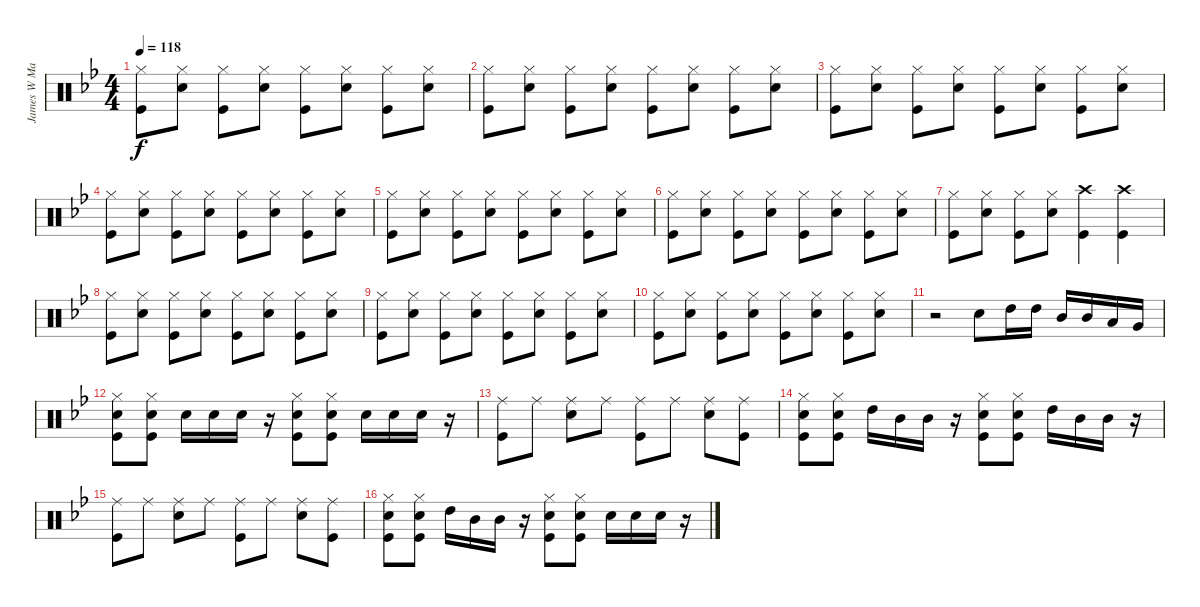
\track ("James W Marshall Drums" "James W Ma") {instrument percussion}
\staff {score}
\articulation defaults
\ts (4 4)
\tempo 118
\clef neutral
\ks gminor
("Hi-Hat (closed)" "Kick (hit)").8{dy f} ("Hi-Hat (closed)" "Snare (hit) 2").8 ("Hi-Hat (closed)" "Kick (hit)").8 ("Hi-Hat (closed)" "Snare (hit) 2").8 ("Hi-Hat (closed)" "Kick (hit)").8 ("Hi-Hat (closed)" "Snare (hit) 2").8 ("Hi-Hat (closed)" "Kick (hit)").8 ("Hi-Hat (closed)" "Snare (hit) 2").8 |
("Hi-Hat (closed)" "Kick (hit)").8 ("Hi-Hat (closed)" "Snare (hit) 2").8 ("Hi-Hat (closed)" "Kick (hit)").8 ("Hi-Hat (closed)" "Snare (hit) 2").8 ("Hi-Hat (closed)" "Kick (hit)").8 ("Hi-Hat (closed)" "Snare (hit) 2").8 ("Hi-Hat (closed)" "Kick (hit)").8 ("Hi-Hat (closed)" "Snare (hit) 2").8 |
("Hi-Hat (closed)" "Kick (hit)").8 ("Hi-Hat (closed)" "Snare (hit) 2").8 ("Hi-Hat (closed)" "Kick (hit)").8 ("Hi-Hat (closed)" "Snare (hit) 2").8 ("Hi-Hat (closed)" "Kick (hit)").8 ("Hi-Hat (closed)" "Snare (hit) 2").8 ("Hi-Hat (closed)" "Kick (hit)").8 ("Hi-Hat (closed)" "Snare (hit) 2").8 |
("Hi-Hat (closed)" "Kick (hit)").8 ("Hi-Hat (closed)" "Snare (hit) 2").8 ("Hi-Hat (closed)" "Kick (hit)").8 ("Hi-Hat (closed)" "Snare (hit) 2").8 ("Hi-Hat (closed)" "Kick (hit)").8 ("Hi-Hat (closed)" "Snare (hit) 2").8 ("Hi-Hat (closed)" "Kick (hit)").8 ("Hi-Hat (closed)" "Snare (hit) 2").8 |
("Hi-Hat (closed)" "Kick (hit)").8 ("Hi-Hat (closed)" "Snare (hit) 2").8 ("Hi-Hat (closed)" "Kick (hit)").8 ("Hi-Hat (closed)" "Snare (hit) 2").8 ("Hi-Hat (closed)" "Kick (hit)").8 ("Hi-Hat (closed)" "Snare (hit) 2").8 ("Hi-Hat (closed)" "Kick (hit)").8 ("Hi-Hat (closed)" "Snare (hit) 2").8 |
("Hi-Hat (closed)" "Kick (hit)").8 ("Hi-Hat (closed)" "Snare (hit) 2").8 ("Hi-Hat (closed)" "Kick (hit)").8 ("Hi-Hat (closed)" "Snare (hit) 2").8 ("Hi-Hat (closed)" "Kick (hit)").8 ("Hi-Hat (closed)" "Snare (hit) 2").8 ("Hi-Hat (closed)" "Kick (hit)").8 ("Hi-Hat (closed)" "Snare (hit) 2").8 |
("Hi-Hat (closed)" "Kick (hit)").8 ("Hi-Hat (closed)" "Snare (hit) 2").8 ("Hi-Hat (closed)" "Kick (hit)").8 ("Hi-Hat (closed)" "Snare (hit) 2").8 ("Crash high (hit)" "Kick (hit)").4 ("Crash high (hit)" "Kick (hit)").4 |
("Hi-Hat (closed)" "Kick (hit)").8 ("Hi-Hat (closed)" "Snare (hit) 2").8 ("Hi-Hat (closed)" "Kick (hit)").8 ("Hi-Hat (closed)" "Snare (hit) 2").8 ("Hi-Hat (closed)" "Kick (hit)").8 ("Hi-Hat (closed)" "Snare (hit) 2").8 ("Hi-Hat (closed)" "Kick (hit)").8 ("Hi-Hat (closed)" "Snare (hit) 2").8 |
("Hi-Hat (closed)" "Kick (hit)").8 ("Hi-Hat (closed)" "Snare (hit) 2").8 ("Hi-Hat (closed)" "Kick (hit)").8 ("Hi-Hat (closed)" "Snare (hit) 2").8 ("Hi-Hat (closed)" "Kick (hit)").8 ("Hi-Hat (closed)" "Snare (hit) 2").8 ("Hi-Hat (closed)" "Kick (hit)").8 ("Hi-Hat (closed)" "Snare (hit) 2").8 |
("Hi-Hat (closed)" "Kick (hit)").8 ("Hi-Hat (closed)" "Snare (hit) 2").8 ("Hi-Hat (closed)" "Kick (hit)").8 ("Hi-Hat (closed)" "Snare (hit) 2").8 ("Hi-Hat (closed)" "Kick (hit)").8 ("Hi-Hat (closed)" "Snare (hit) 2").8 ("Hi-Hat (closed)" "Kick (hit)").8 ("Hi-Hat (closed)" "Snare (hit) 2").8 |
r.2 "Snare (hit) 2".8 "High Tom (hit)".16 "High Tom (hit)".16 "Mid Tom (hit)".16 "Mid Tom (hit)".16 "Low Tom (hit)".16 "Very Low Tom (hit)".16 |
("Hi-Hat (closed)" "Snare (hit) 2" "Kick (hit)").8 ("Hi-Hat (closed)" "Snare (hit) 2" "Kick (hit)").8 "Snare (hit) 2".16 "Snare (hit) 2".16 "Snare (hit) 2".16 r.16 ("Hi-Hat (closed)" "Snare (hit) 2" "Kick (hit)").8 ("Hi-Hat (closed)" "Snare (hit) 2" "Kick (hit)").8 "Snare (hit) 2".16 "Snare (hit) 2".16 "Snare (hit) 2".16 r.16 |
("Ride (middle)" "Kick (hit)").8 "Ride (middle)".8 ("Ride (middle)" "Snare (hit) 2").8 "Ride (middle)".8 ("Ride (middle)" "Kick (hit)").8 "Ride (middle)".8 ("Ride (middle)" "Snare (hit) 2").8 ("Ride (middle)" "Kick (hit)").8 |
("Hi-Hat (closed)" "Snare (hit) 2" "Kick (hit)").8 ("Hi-Hat (closed)" "Snare (hit) 2" "Kick (hit)").8 "High Tom (hit)".16 "Mid Tom (hit)".16 "Mid Tom (hit)".16 r.16 ("Hi-Hat (closed)" "Snare (hit) 2" "Kick (hit)").8 ("Hi-Hat (closed)" "Snare (hit) 2" "Kick (hit)").8 "High Tom (hit)".16 "Mid Tom (hit)".16 "Mid Tom (hit)".16 r.16 |
("Ride (middle)" "Kick (hit)").8 "Ride (middle)".8 ("Ride (middle)" "Snare (hit) 2").8 "Ride (middle)".8 ("Ride (middle)" "Kick (hit)").8 "Ride (middle)".8 ("Ride (middle)" "Snare (hit) 2").8 ("Ride (middle)" "Kick (hit)").8 |
("Hi-Hat (closed)" "Snare (hit) 2" "Kick (hit)").8 ("Hi-Hat (closed)" "Snare (hit) 2" "Kick (hit)").8 "High Tom (hit)".16 "Mid Tom (hit)".16 "Mid Tom (hit)".16 r.16 ("Hi-Hat (closed)" "Snare (hit) 2" "Kick (hit)").8 ("Hi-Hat (closed)" "Snare (hit) 2" "Kick (hit)").8 "Snare (hit) 2".16 "Snare (hit) 2".16 "Snare (hit) 2".16 r.16
